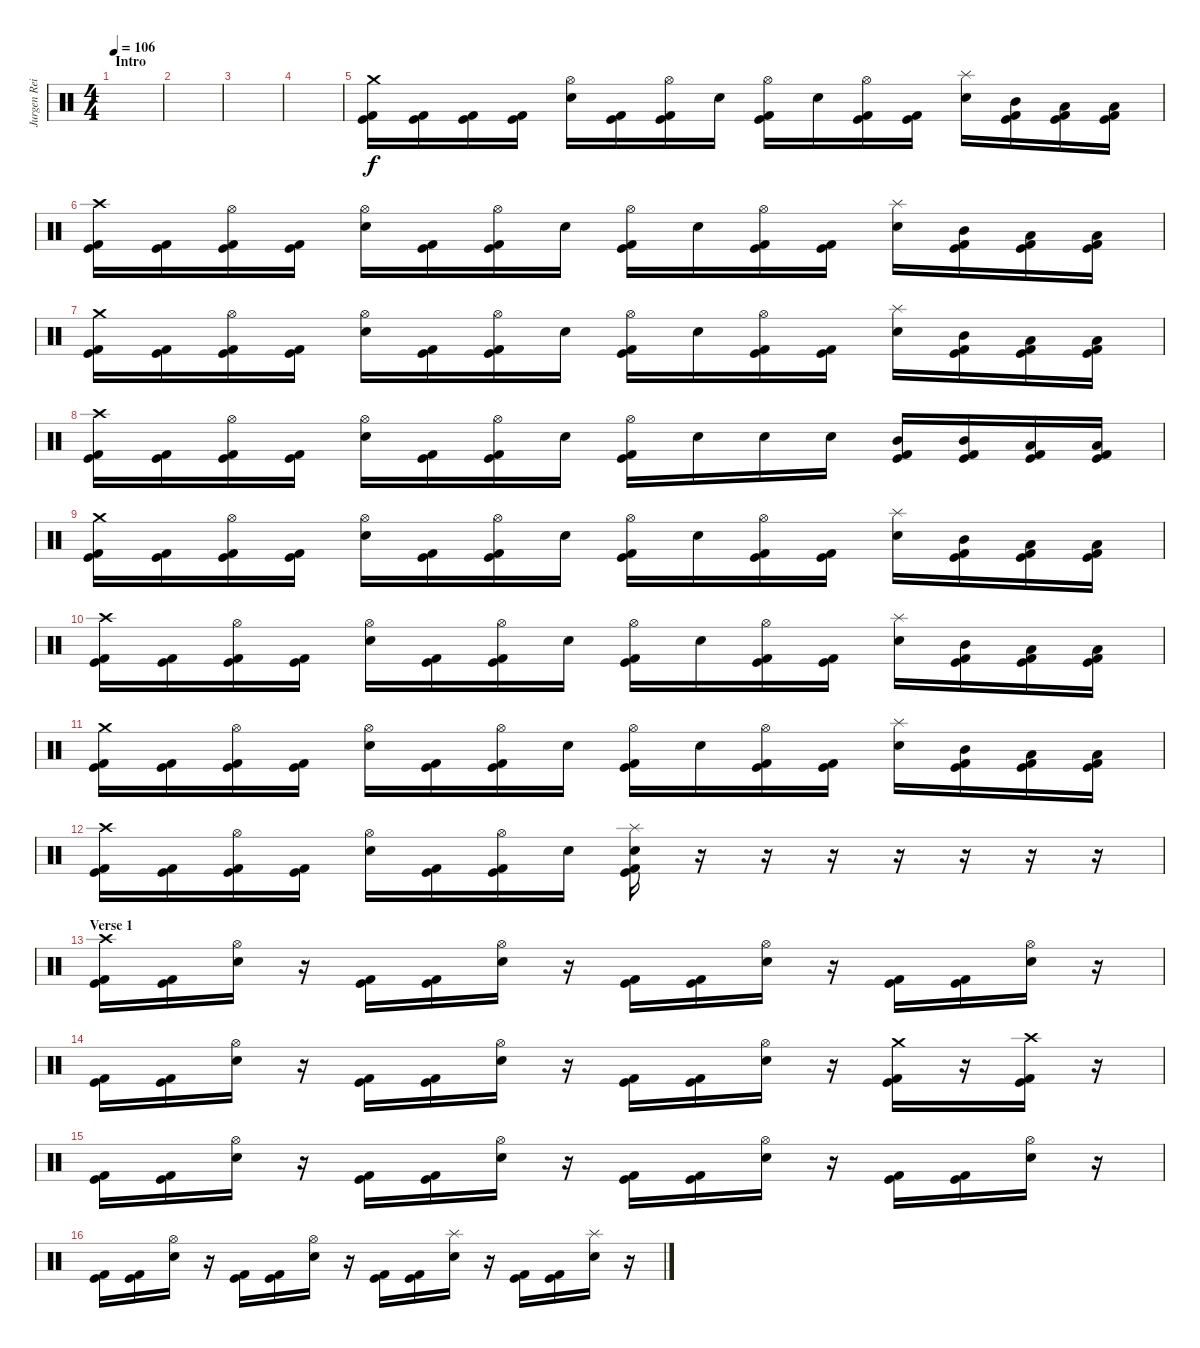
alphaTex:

\track ("Jurgen Reil" "Jurgen Rei") {instrument percussion}
\staff {score}
\articulation defaults
\ts (4 4)
\section ("" "Intro")
\tempo 106
\clef neutral
\ks c
|
|
|
|
("Crash medium (hit)" "Kick (hit)" "Kick (hit) 2").16 ("Kick (hit)" "Kick (hit) 2").16 ("Kick (hit)" "Kick (hit) 2").16 ("Kick (hit)" "Kick (hit) 2").16 ("Hi-Hat (open)" "Electric Snare (hit)").16 ("Kick (hit)" "Kick (hit) 2").16 ("Hi-Hat (open)" "Kick (hit)" "Kick (hit) 2").16 "Electric Snare (hit)".16 ("Hi-Hat (open)" "Kick (hit)" "Kick (hit) 2").16 "Electric Snare (hit)".16 ("Hi-Hat (open)" "Kick (hit)" "Kick (hit) 2").16 ("Kick (hit)" "Kick (hit) 2").16 ("Splash (hit)" "Electric Snare (hit)").16 ("Mid Tom (hit)" "Kick (hit)" "Kick (hit) 2").16 ("Low Tom (hit)" "Kick (hit)" "Kick (hit) 2").16 ("Low Tom (hit)" "Kick (hit)" "Kick (hit) 2").16 |
("Crash high (hit)" "Kick (hit)" "Kick (hit) 2").16 ("Kick (hit)" "Kick (hit) 2").16 ("Hi-Hat (open)" "Kick (hit)" "Kick (hit) 2").16 ("Kick (hit)" "Kick (hit) 2").16 ("Hi-Hat (open)" "Electric Snare (hit)").16 ("Kick (hit)" "Kick (hit) 2").16 ("Hi-Hat (open)" "Kick (hit)" "Kick (hit) 2").16 "Electric Snare (hit)".16 ("Hi-Hat (open)" "Kick (hit)" "Kick (hit) 2").16 "Electric Snare (hit)".16 ("Hi-Hat (open)" "Kick (hit)" "Kick (hit) 2").16 ("Kick (hit)" "Kick (hit) 2").16 ("Splash (hit)" "Electric Snare (hit)").16 ("Mid Tom (hit)" "Kick (hit)" "Kick (hit) 2").16 ("Low Tom (hit)" "Kick (hit)" "Kick (hit) 2").16 ("Low Tom (hit)" "Kick (hit)" "Kick (hit) 2").16 |
("Crash medium (hit)" "Kick (hit)" "Kick (hit) 2").16 ("Kick (hit)" "Kick (hit) 2").16 ("Hi-Hat (open)" "Kick (hit)" "Kick (hit) 2").16 ("Kick (hit)" "Kick (hit) 2").16 ("Hi-Hat (open)" "Electric Snare (hit)").16 ("Kick (hit)" "Kick (hit) 2").16 ("Hi-Hat (open)" "Kick (hit)" "Kick (hit) 2").16 "Electric Snare (hit)".16 ("Hi-Hat (open)" "Kick (hit)" "Kick (hit) 2").16 "Electric Snare (hit)".16 ("Hi-Hat (open)" "Kick (hit)" "Kick (hit) 2").16 ("Kick (hit)" "Kick (hit) 2").16 ("Splash (hit)" "Electric Snare (hit)").16 ("Mid Tom (hit)" "Kick (hit)" "Kick (hit) 2").16 ("Low Tom (hit)" "Kick (hit)" "Kick (hit) 2").16 ("Low Tom (hit)" "Kick (hit)" "Kick (hit) 2").16 |
("Crash high (hit)" "Kick (hit)" "Kick (hit) 2").16 ("Kick (hit)" "Kick (hit) 2").16 ("Hi-Hat (open)" "Kick (hit)" "Kick (hit) 2").16 ("Kick (hit)" "Kick (hit) 2").16 ("Hi-Hat (open)" "Electric Snare (hit)").16 ("Kick (hit)" "Kick (hit) 2").16 ("Hi-Hat (open)" "Kick (hit)" "Kick (hit) 2").16 "Electric Snare (hit)".16 ("Hi-Hat (open)" "Kick (hit)" "Kick (hit) 2").16 "Electric Snare (hit)".16 "Electric Snare (hit)".16 "Electric Snare (hit)".16 ("Mid Tom (hit)" "Kick (hit)" "Kick (hit) 2").16 ("Mid Tom (hit)" "Kick (hit)" "Kick (hit) 2").16 ("Low Tom (hit)" "Kick (hit)" "Kick (hit) 2").16 ("Low Tom (hit)" "Kick (hit)" "Kick (hit) 2").16 |
("Crash medium (hit)" "Kick (hit)" "Kick (hit) 2").16 ("Kick (hit)" "Kick (hit) 2").16 ("Hi-Hat (open)" "Kick (hit)" "Kick (hit) 2").16 ("Kick (hit)" "Kick (hit) 2").16 ("Hi-Hat (open)" "Electric Snare (hit)").16 ("Kick (hit)" "Kick (hit) 2").16 ("Hi-Hat (open)" "Kick (hit)" "Kick (hit) 2").16 "Electric Snare (hit)".16 ("Hi-Hat (open)" "Kick (hit)" "Kick (hit) 2").16 "Electric Snare (hit)".16 ("Hi-Hat (open)" "Kick (hit)" "Kick (hit) 2").16 ("Kick (hit)" "Kick (hit) 2").16 ("Splash (hit)" "Electric Snare (hit)").16 ("Mid Tom (hit)" "Kick (hit)" "Kick (hit) 2").16 ("Low Tom (hit)" "Kick (hit)" "Kick (hit) 2").16 ("Low Tom (hit)" "Kick (hit)" "Kick (hit) 2").16 |
("Crash high (hit)" "Kick (hit)" "Kick (hit) 2").16 ("Kick (hit)" "Kick (hit) 2").16 ("Hi-Hat (open)" "Kick (hit)" "Kick (hit) 2").16 ("Kick (hit)" "Kick (hit) 2").16 ("Hi-Hat (open)" "Electric Snare (hit)").16 ("Kick (hit)" "Kick (hit) 2").16 ("Hi-Hat (open)" "Kick (hit)" "Kick (hit) 2").16 "Electric Snare (hit)".16 ("Hi-Hat (open)" "Kick (hit)" "Kick (hit) 2").16 "Electric Snare (hit)".16 ("Hi-Hat (open)" "Kick (hit)" "Kick (hit) 2").16 ("Kick (hit)" "Kick (hit) 2").16 ("Splash (hit)" "Electric Snare (hit)").16 ("Mid Tom (hit)" "Kick (hit)" "Kick (hit) 2").16 ("Low Tom (hit)" "Kick (hit)" "Kick (hit) 2").16 ("Low Tom (hit)" "Kick (hit)" "Kick (hit) 2").16 |
("Crash medium (hit)" "Kick (hit)" "Kick (hit) 2").16 ("Kick (hit)" "Kick (hit) 2").16 ("Hi-Hat (open)" "Kick (hit)" "Kick (hit) 2").16 ("Kick (hit)" "Kick (hit) 2").16 ("Hi-Hat (open)" "Electric Snare (hit)").16 ("Kick (hit)" "Kick (hit) 2").16 ("Hi-Hat (open)" "Kick (hit)" "Kick (hit) 2").16 "Electric Snare (hit)".16 ("Hi-Hat (open)" "Kick (hit)" "Kick (hit) 2").16 "Electric Snare (hit)".16 ("Hi-Hat (open)" "Kick (hit)" "Kick (hit) 2").16 ("Kick (hit)" "Kick (hit) 2").16 ("Splash (hit)" "Electric Snare (hit)").16 ("Mid Tom (hit)" "Kick (hit)" "Kick (hit) 2").16 ("Low Tom (hit)" "Kick (hit)" "Kick (hit) 2").16 ("Low Tom (hit)" "Kick (hit)" "Kick (hit) 2").16 |
("Crash high (hit)" "Kick (hit)" "Kick (hit) 2").16 ("Kick (hit)" "Kick (hit) 2").16 ("Hi-Hat (open)" "Kick (hit)" "Kick (hit) 2").16 ("Kick (hit)" "Kick (hit) 2").16 ("Hi-Hat (open)" "Electric Snare (hit)").16 ("Kick (hit)" "Kick (hit) 2").16 ("Hi-Hat (open)" "Kick (hit)" "Kick (hit) 2").16 "Electric Snare (hit)".16 ("Splash (hit)" "Electric Snare (hit)" "Kick (hit)" "Kick (hit) 2").16 r.16 r.16 r.16 r.16 r.16 r.16 r.16 |
\section ("" "Verse 1")
("Crash high (hit)" "Kick (hit)" "Kick (hit) 2").16 ("Kick (hit)" "Kick (hit) 2").16 ("Hi-Hat (open)" "Electric Snare (hit)").16 r.16 ("Kick (hit)" "Kick (hit) 2").16 ("Kick (hit)" "Kick (hit) 2").16 ("Hi-Hat (open)" "Electric Snare (hit)").16 r.16 ("Kick (hit)" "Kick (hit) 2").16 ("Kick (hit)" "Kick (hit) 2").16 ("Hi-Hat (open)" "Electric Snare (hit)").16 r.16 ("Kick (hit)" "Kick (hit) 2").16 ("Kick (hit)" "Kick (hit) 2").16 ("Hi-Hat (open)" "Electric Snare (hit)").16 r.16 |
("Kick (hit)" "Kick (hit) 2").16 ("Kick (hit)" "Kick (hit) 2").16 ("Hi-Hat (open)" "Electric Snare (hit)").16 r.16 ("Kick (hit)" "Kick (hit) 2").16 ("Kick (hit)" "Kick (hit) 2").16 ("Hi-Hat (open)" "Electric Snare (hit)").16 r.16 ("Kick (hit)" "Kick (hit) 2").16 ("Kick (hit)" "Kick (hit) 2").16 ("Hi-Hat (open)" "Electric Snare (hit)").16 r.16 ("Crash medium (hit)" "Kick (hit)" "Kick (hit) 2").16 r.16 ("Crash high (hit)" "Kick (hit)" "Kick (hit) 2").16 r.16 |
("Kick (hit)" "Kick (hit) 2").16 ("Kick (hit)" "Kick (hit) 2").16 ("Hi-Hat (open)" "Electric Snare (hit)").16 r.16 ("Kick (hit)" "Kick (hit) 2").16 ("Kick (hit)" "Kick (hit) 2").16 ("Hi-Hat (open)" "Electric Snare (hit)").16 r.16 ("Kick (hit)" "Kick (hit) 2").16 ("Kick (hit)" "Kick (hit) 2").16 ("Hi-Hat (open)" "Electric Snare (hit)").16 r.16 ("Kick (hit)" "Kick (hit) 2").16 ("Kick (hit)" "Kick (hit) 2").16 ("Hi-Hat (open)" "Electric Snare (hit)").16 r.16 |
("Kick (hit)" "Kick (hit) 2").16 ("Kick (hit)" "Kick (hit) 2").16 ("Hi-Hat (open)" "Electric Snare (hit)").16 r.16 ("Kick (hit)" "Kick (hit) 2").16 ("Kick (hit)" "Kick (hit) 2").16 ("Hi-Hat (open)" "Electric Snare (hit)").16 r.16 ("Kick (hit)" "Kick (hit) 2").16 ("Kick (hit)" "Kick (hit) 2").16 ("Splash (hit)" "Electric Snare (hit)").16 r.16 ("Kick (hit)" "Kick (hit) 2").16 ("Kick (hit)" "Kick (hit) 2").16 ("Splash (hit)" "Electric Snare (hit)").16 r.16
